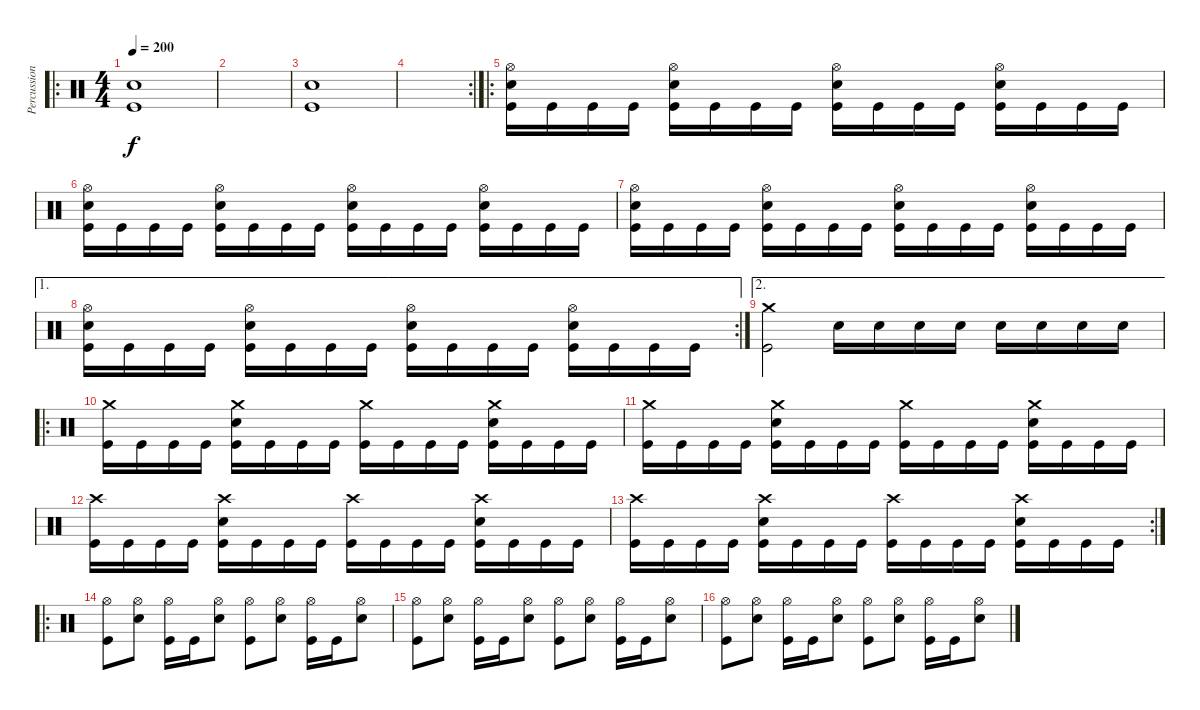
\track ("Percussion" "Percussion") {instrument percussion}
\staff {score}
\articulation defaults
\ro
\ts (4 4)
\tempo 200
\clef neutral
\ks c
("Snare (hit) 2" "Kick (hit)").1{dy f} |
|
("Snare (hit) 2" "Kick (hit)").1 |
\rc 2
|
\ro
("Hi-Hat (open)" "Snare (hit) 2" "Kick (hit)").16 "Kick (hit)".16 "Kick (hit)".16 "Kick (hit)".16 ("Hi-Hat (open)" "Snare (hit) 2" "Kick (hit)").16 "Kick (hit)".16 "Kick (hit)".16 "Kick (hit)".16 ("Hi-Hat (open)" "Snare (hit) 2" "Kick (hit)").16 "Kick (hit)".16 "Kick (hit)".16 "Kick (hit)".16 ("Hi-Hat (open)" "Snare (hit) 2" "Kick (hit)").16 "Kick (hit)".16 "Kick (hit)".16 "Kick (hit)".16 |
("Hi-Hat (open)" "Snare (hit) 2" "Kick (hit)").16 "Kick (hit)".16 "Kick (hit)".16 "Kick (hit)".16 ("Hi-Hat (open)" "Snare (hit) 2" "Kick (hit)").16 "Kick (hit)".16 "Kick (hit)".16 "Kick (hit)".16 ("Hi-Hat (open)" "Snare (hit) 2" "Kick (hit)").16 "Kick (hit)".16 "Kick (hit)".16 "Kick (hit)".16 ("Hi-Hat (open)" "Snare (hit) 2" "Kick (hit)").16 "Kick (hit)".16 "Kick (hit)".16 "Kick (hit)".16 |
("Hi-Hat (open)" "Snare (hit) 2" "Kick (hit)").16 "Kick (hit)".16 "Kick (hit)".16 "Kick (hit)".16 ("Hi-Hat (open)" "Snare (hit) 2" "Kick (hit)").16 "Kick (hit)".16 "Kick (hit)".16 "Kick (hit)".16 ("Hi-Hat (open)" "Snare (hit) 2" "Kick (hit)").16 "Kick (hit)".16 "Kick (hit)".16 "Kick (hit)".16 ("Hi-Hat (open)" "Snare (hit) 2" "Kick (hit)").16 "Kick (hit)".16 "Kick (hit)".16 "Kick (hit)".16 |
\ae 1
\rc 2
("Hi-Hat (open)" "Snare (hit) 2" "Kick (hit)").16 "Kick (hit)".16 "Kick (hit)".16 "Kick (hit)".16 ("Hi-Hat (open)" "Snare (hit) 2" "Kick (hit)").16 "Kick (hit)".16 "Kick (hit)".16 "Kick (hit)".16 ("Hi-Hat (open)" "Snare (hit) 2" "Kick (hit)").16 "Kick (hit)".16 "Kick (hit)".16 "Kick (hit)".16 ("Hi-Hat (open)" "Snare (hit) 2" "Kick (hit)").16 "Kick (hit)".16 "Kick (hit)".16 "Kick (hit)".16 |
\ae 2
("Crash medium (hit)" "Kick (hit)").2 "Snare (hit) 2".16 "Snare (hit) 2".16 "Snare (hit) 2".16 "Snare (hit) 2".16 "Snare (hit) 2".16 "Snare (hit) 2".16 "Snare (hit) 2".16 "Snare (hit) 2".16 |
\ro
("Crash medium (hit)" "Kick (hit)").16 "Kick (hit)".16 "Kick (hit)".16 "Kick (hit)".16 ("Crash medium (hit)" "Snare (hit) 2" "Kick (hit)").16 "Kick (hit)".16 "Kick (hit)".16 "Kick (hit)".16 ("Crash medium (hit)" "Kick (hit)").16 "Kick (hit)".16 "Kick (hit)".16 "Kick (hit)".16 ("Crash medium (hit)" "Snare (hit) 2" "Kick (hit)").16 "Kick (hit)".16 "Kick (hit)".16 "Kick (hit)".16 |
("Crash medium (hit)" "Kick (hit)").16 "Kick (hit)".16 "Kick (hit)".16 "Kick (hit)".16 ("Crash medium (hit)" "Snare (hit) 2" "Kick (hit)").16 "Kick (hit)".16 "Kick (hit)".16 "Kick (hit)".16 ("Crash medium (hit)" "Kick (hit)").16 "Kick (hit)".16 "Kick (hit)".16 "Kick (hit)".16 ("Crash medium (hit)" "Snare (hit) 2" "Kick (hit)").16 "Kick (hit)".16 "Kick (hit)".16 "Kick (hit)".16 |
("Crash high (hit)" "Kick (hit)").16 "Kick (hit)".16 "Kick (hit)".16 "Kick (hit)".16 ("Crash high (hit)" "Snare (hit) 2" "Kick (hit)").16 "Kick (hit)".16 "Kick (hit)".16 "Kick (hit)".16 ("Crash high (hit)" "Kick (hit)").16 "Kick (hit)".16 "Kick (hit)".16 "Kick (hit)".16 ("Crash high (hit)" "Snare (hit) 2" "Kick (hit)").16 "Kick (hit)".16 "Kick (hit)".16 "Kick (hit)".16 |
\rc 2
("Crash high (hit)" "Kick (hit)").16 "Kick (hit)".16 "Kick (hit)".16 "Kick (hit)".16 ("Crash high (hit)" "Snare (hit) 2" "Kick (hit)").16 "Kick (hit)".16 "Kick (hit)".16 "Kick (hit)".16 ("Crash high (hit)" "Kick (hit)").16 "Kick (hit)".16 "Kick (hit)".16 "Kick (hit)".16 ("Crash high (hit)" "Snare (hit) 2" "Kick (hit)").16 "Kick (hit)".16 "Kick (hit)".16 "Kick (hit)".16 |
\ro
("Hi-Hat (open)" "Kick (hit)").8 ("Hi-Hat (open)" "Snare (hit) 2").8 ("Hi-Hat (open)" "Kick (hit)").16 "Kick (hit)".16 ("Hi-Hat (open)" "Snare (hit) 2").8 ("Hi-Hat (open)" "Kick (hit)").8 ("Hi-Hat (open)" "Snare (hit) 2").8 ("Hi-Hat (open)" "Kick (hit)").16 "Kick (hit)".16 ("Hi-Hat (open)" "Snare (hit) 2").8 |
("Hi-Hat (open)" "Kick (hit)").8 ("Hi-Hat (open)" "Snare (hit) 2").8 ("Hi-Hat (open)" "Kick (hit)").16 "Kick (hit)".16 ("Hi-Hat (open)" "Snare (hit) 2").8 ("Hi-Hat (open)" "Kick (hit)").8 ("Hi-Hat (open)" "Snare (hit) 2").8 ("Hi-Hat (open)" "Kick (hit)").16 "Kick (hit)".16 ("Hi-Hat (open)" "Snare (hit) 2").8 |
("Hi-Hat (open)" "Kick (hit)").8 ("Hi-Hat (open)" "Snare (hit) 2").8 ("Hi-Hat (open)" "Kick (hit)").16 "Kick (hit)".16 ("Hi-Hat (open)" "Snare (hit) 2").8 ("Hi-Hat (open)" "Kick (hit)").8 ("Hi-Hat (open)" "Snare (hit) 2").8 ("Hi-Hat (open)" "Kick (hit)").16 "Kick (hit)".16 ("Hi-Hat (open)" "Snare (hit) 2").8
